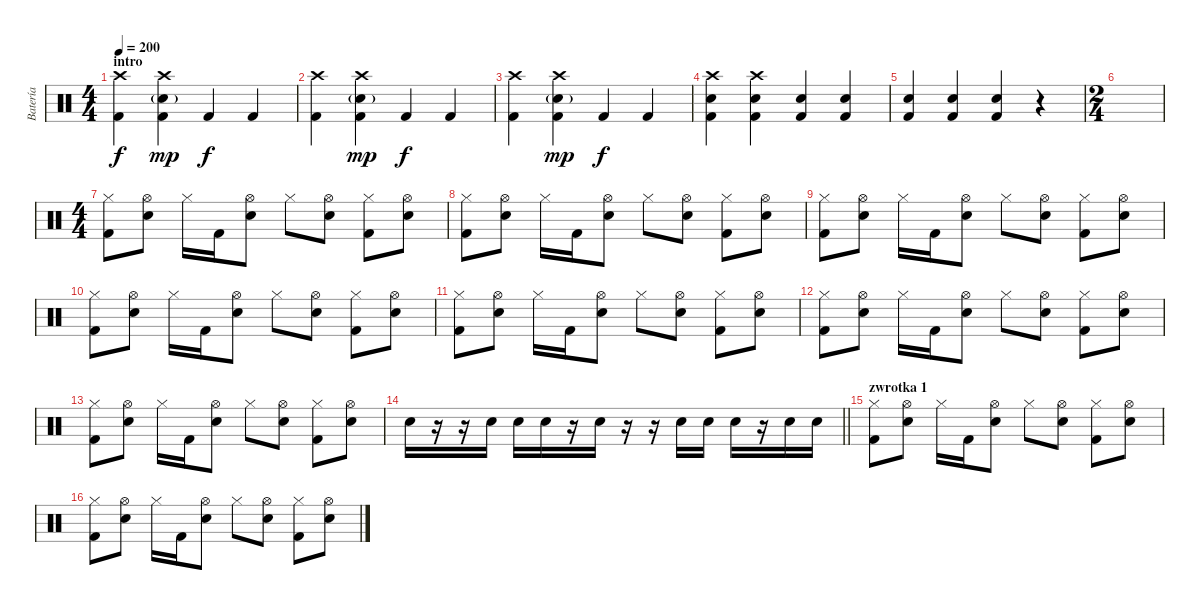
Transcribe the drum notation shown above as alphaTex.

\track ("Batería" "Batería") {instrument percussion}
\staff {score}
\articulation defaults
\ts (4 4)
\section ("" "intro")
\tempo 200
\clef neutral
\ks c
("Crash high (hit)" "Kick (hit) 2").4{dy f} ("Crash high (hit)" "Snare (hit) 2"{g} "Kick (hit) 2").4{dy mp} "Kick (hit) 2".4{dy f} "Kick (hit) 2".4 |
("Crash high (hit)" "Kick (hit) 2").4 ("Crash high (hit)" "Snare (hit) 2"{g} "Kick (hit) 2").4{dy mp} "Kick (hit) 2".4{dy f} "Kick (hit) 2".4 |
("Crash high (hit)" "Kick (hit) 2").4 ("Crash high (hit)" "Snare (hit) 2"{g} "Kick (hit) 2").4{dy mp} "Kick (hit) 2".4{dy f} "Kick (hit) 2".4 |
("Crash high (hit)" "Snare (hit) 2" "Kick (hit) 2").4 ("Crash high (hit)" "Snare (hit) 2" "Kick (hit) 2").4 ("Snare (hit) 2" "Kick (hit) 2").4 ("Snare (hit) 2" "Kick (hit) 2").4 |
("Snare (hit) 2" "Kick (hit) 2").4 ("Snare (hit) 2" "Kick (hit) 2").4 ("Snare (hit) 2" "Kick (hit) 2").4 r.4 |
\ts (2 4)
|
\ts (4 4)
("Hi-Hat (closed)" "Kick (hit) 2").8 ("Hi-Hat (open)" "Snare (hit) 2").8 "Hi-Hat (closed)".16 "Kick (hit) 2".16 ("Hi-Hat (open)" "Snare (hit) 2").8 "Hi-Hat (closed)".8 ("Hi-Hat (open)" "Snare (hit) 2").8 ("Hi-Hat (closed)" "Kick (hit) 2").8 ("Hi-Hat (open)" "Snare (hit) 2").8 |
("Hi-Hat (closed)" "Kick (hit) 2").8 ("Hi-Hat (open)" "Snare (hit) 2").8 "Hi-Hat (closed)".16 "Kick (hit) 2".16 ("Hi-Hat (open)" "Snare (hit) 2").8 "Hi-Hat (closed)".8 ("Hi-Hat (open)" "Snare (hit) 2").8 ("Hi-Hat (closed)" "Kick (hit) 2").8 ("Hi-Hat (open)" "Snare (hit) 2").8 |
("Hi-Hat (closed)" "Kick (hit) 2").8 ("Hi-Hat (open)" "Snare (hit) 2").8 "Hi-Hat (closed)".16 "Kick (hit) 2".16 ("Hi-Hat (open)" "Snare (hit) 2").8 "Hi-Hat (closed)".8 ("Hi-Hat (open)" "Snare (hit) 2").8 ("Hi-Hat (closed)" "Kick (hit) 2").8 ("Hi-Hat (open)" "Snare (hit) 2").8 |
("Hi-Hat (closed)" "Kick (hit) 2").8 ("Hi-Hat (open)" "Snare (hit) 2").8 "Hi-Hat (closed)".16 "Kick (hit) 2".16 ("Hi-Hat (open)" "Snare (hit) 2").8 "Hi-Hat (closed)".8 ("Hi-Hat (open)" "Snare (hit) 2").8 ("Hi-Hat (closed)" "Kick (hit) 2").8 ("Hi-Hat (open)" "Snare (hit) 2").8 |
("Hi-Hat (closed)" "Kick (hit) 2").8 ("Hi-Hat (open)" "Snare (hit) 2").8 "Hi-Hat (closed)".16 "Kick (hit) 2".16 ("Hi-Hat (open)" "Snare (hit) 2").8 "Hi-Hat (closed)".8 ("Hi-Hat (open)" "Snare (hit) 2").8 ("Hi-Hat (closed)" "Kick (hit) 2").8 ("Hi-Hat (open)" "Snare (hit) 2").8 |
("Hi-Hat (closed)" "Kick (hit) 2").8 ("Hi-Hat (open)" "Snare (hit) 2").8 "Hi-Hat (closed)".16 "Kick (hit) 2".16 ("Hi-Hat (open)" "Snare (hit) 2").8 "Hi-Hat (closed)".8 ("Hi-Hat (open)" "Snare (hit) 2").8 ("Hi-Hat (closed)" "Kick (hit) 2").8 ("Hi-Hat (open)" "Snare (hit) 2").8 |
("Hi-Hat (closed)" "Kick (hit) 2").8 ("Hi-Hat (open)" "Snare (hit) 2").8 "Hi-Hat (closed)".16 "Kick (hit) 2".16 ("Hi-Hat (open)" "Snare (hit) 2").8 "Hi-Hat (closed)".8 ("Hi-Hat (open)" "Snare (hit) 2").8 ("Hi-Hat (closed)" "Kick (hit) 2").8 ("Hi-Hat (open)" "Snare (hit) 2").8 |
\barLineRight lightlight "Snare (hit) 2".16
r.16 r.16 "Snare (hit) 2".16 "Snare (hit) 2".16 "Snare (hit) 2".16 r.16 "Snare (hit) 2".16 r.16 r.16 "Snare (hit) 2".16 "Snare (hit) 2".16 "Snare (hit) 2".16 r.16 "Snare (hit) 2".16 "Snare (hit) 2".16 |
\section ("" "zwrotka 1")
("Hi-Hat (closed)" "Kick (hit) 2").8 ("Hi-Hat (open)" "Snare (hit) 2").8 "Hi-Hat (closed)".16 "Kick (hit) 2".16 ("Hi-Hat (open)" "Snare (hit) 2").8 "Hi-Hat (closed)".8 ("Hi-Hat (open)" "Snare (hit) 2").8 ("Hi-Hat (closed)" "Kick (hit) 2").8 ("Hi-Hat (open)" "Snare (hit) 2").8 |
("Hi-Hat (closed)" "Kick (hit) 2").8 ("Hi-Hat (open)" "Snare (hit) 2").8 "Hi-Hat (closed)".16 "Kick (hit) 2".16 ("Hi-Hat (open)" "Snare (hit) 2").8 "Hi-Hat (closed)".8 ("Hi-Hat (open)" "Snare (hit) 2").8 ("Hi-Hat (closed)" "Kick (hit) 2").8 ("Hi-Hat (open)" "Snare (hit) 2").8
